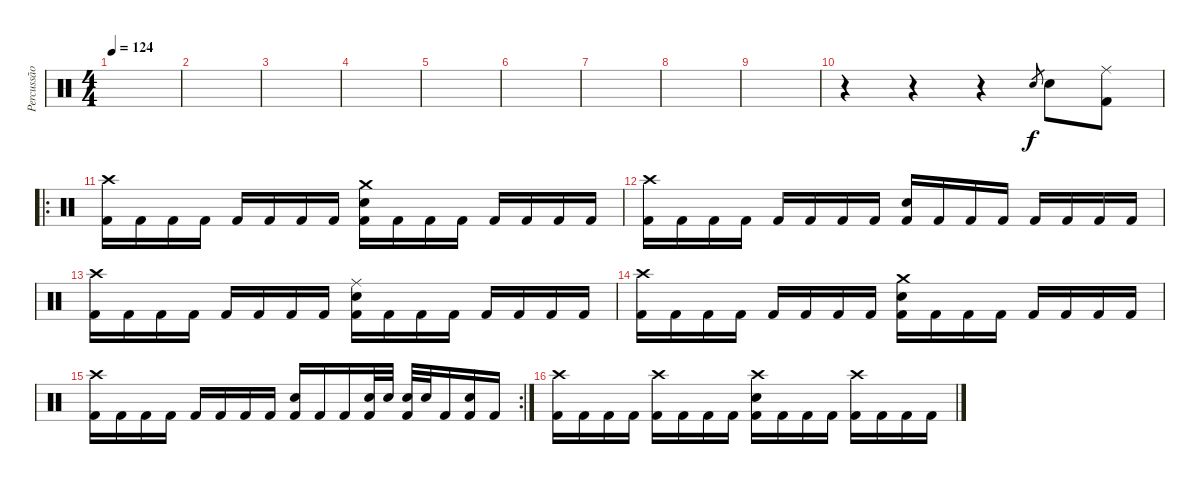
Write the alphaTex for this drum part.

\track ("Percussão" "Percussão") {instrument percussion}
\staff {score}
\articulation defaults
\ts (4 4)
\tempo 124
\clef neutral
\ks c
|
|
|
|
|
|
|
|
|
r.4 r.4 r.4 "Electric Snare (hit)".8{gr} "Electric Snare (hit)".8 ("Kick (hit) 2" "Ride (middle)").8 |
\ro
("Kick (hit) 2" "Crash high (hit)").16 "Kick (hit) 2".16 "Kick (hit) 2".16 "Kick (hit) 2".16 "Kick (hit) 2".16 "Kick (hit) 2".16 "Kick (hit) 2".16 "Kick (hit) 2".16 ("Kick (hit) 2" "Electric Snare (hit)" "Crash medium (hit)").16 "Kick (hit) 2".16 "Kick (hit) 2".16 "Kick (hit) 2".16 "Kick (hit) 2".16 "Kick (hit) 2".16 "Kick (hit) 2".16 "Kick (hit) 2".16 |
("Kick (hit) 2" "Crash high (hit)").16 "Kick (hit) 2".16 "Kick (hit) 2".16 "Kick (hit) 2".16 "Kick (hit) 2".16 "Kick (hit) 2".16 "Kick (hit) 2".16 "Kick (hit) 2".16 ("Kick (hit) 2" "Electric Snare (hit)").16 "Kick (hit) 2".16 "Kick (hit) 2".16 "Kick (hit) 2".16 "Kick (hit) 2".16 "Kick (hit) 2".16 "Kick (hit) 2".16 "Kick (hit) 2".16 |
("Kick (hit) 2" "Crash high (hit)").16 "Kick (hit) 2".16 "Kick (hit) 2".16 "Kick (hit) 2".16 "Kick (hit) 2".16 "Kick (hit) 2".16 "Kick (hit) 2".16 "Kick (hit) 2".16 ("Kick (hit) 2" "Electric Snare (hit)" "Ride (middle)").16 "Kick (hit) 2".16 "Kick (hit) 2".16 "Kick (hit) 2".16 "Kick (hit) 2".16 "Kick (hit) 2".16 "Kick (hit) 2".16 "Kick (hit) 2".16 |
("Kick (hit) 2" "Crash high (hit)").16 "Kick (hit) 2".16 "Kick (hit) 2".16 "Kick (hit) 2".16 "Kick (hit) 2".16 "Kick (hit) 2".16 "Kick (hit) 2".16 "Kick (hit) 2".16 ("Kick (hit) 2" "Electric Snare (hit)" "Crash medium (hit)").16 "Kick (hit) 2".16 "Kick (hit) 2".16 "Kick (hit) 2".16 "Kick (hit) 2".16 "Kick (hit) 2".16 "Kick (hit) 2".16 "Kick (hit) 2".16 |
\rc 2
("Kick (hit) 2" "Crash high (hit)").16 "Kick (hit) 2".16 "Kick (hit) 2".16 "Kick (hit) 2".16 "Kick (hit) 2".16 "Kick (hit) 2".16 "Kick (hit) 2".16 "Kick (hit) 2".16 ("Kick (hit) 2" "Electric Snare (hit)").16 "Kick (hit) 2".16 "Kick (hit) 2".16 ("Kick (hit) 2" "Electric Snare (hit)").32 "Electric Snare (hit)".32 ("Kick (hit) 2" "Electric Snare (hit)").32 "Electric Snare (hit)".32 "Kick (hit) 2".16 ("Kick (hit) 2" "Snare (hit) 2").16 "Kick (hit) 2".16 |
("Kick (hit) 2" "Crash high (hit)").16 "Kick (hit) 2".16 "Kick (hit) 2".16 "Kick (hit) 2".16 ("Kick (hit) 2" "Crash high (hit)").16 "Kick (hit) 2".16 "Kick (hit) 2".16 "Kick (hit) 2".16 ("Kick (hit) 2" "Electric Snare (hit)" "Crash high (hit)").16 "Kick (hit) 2".16 "Kick (hit) 2".16 "Kick (hit) 2".16 ("Kick (hit) 2" "Crash high (hit)").16 "Kick (hit) 2".16 "Kick (hit) 2".16 "Kick (hit) 2".16
